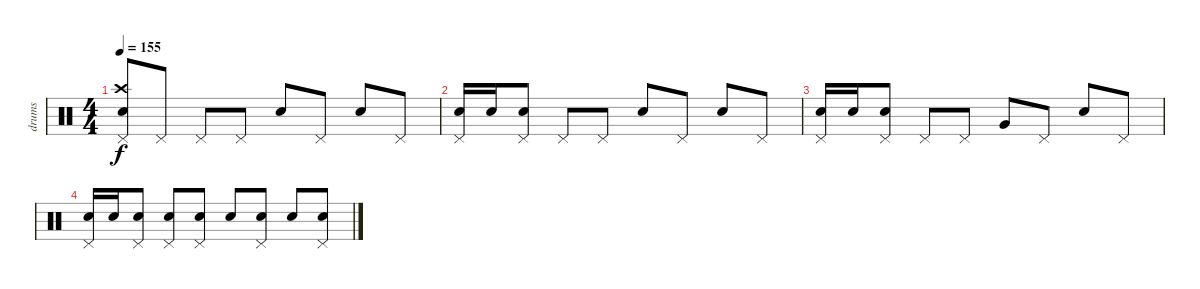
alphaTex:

\track ("drums" "drums") {instrument percussion}
\staff {score}
\articulation defaults
\ts (4 4)
\tempo 155
\clef neutral
\ks c
("Electric Snare (hit)" "Crash high (hit)" "Pedal Hi-Hat (hit)").8{dy f} "Pedal Hi-Hat (hit)".8 "Pedal Hi-Hat (hit)".8 "Pedal Hi-Hat (hit)".8 "Electric Snare (hit)".8 "Pedal Hi-Hat (hit)".8 "Electric Snare (hit)".8 "Pedal Hi-Hat (hit)".8 |
("Electric Snare (hit)" "Pedal Hi-Hat (hit)").16 "Electric Snare (hit)".16 ("Electric Snare (hit)" "Pedal Hi-Hat (hit)").8 "Pedal Hi-Hat (hit)".8 "Pedal Hi-Hat (hit)".8 "Electric Snare (hit)".8 "Pedal Hi-Hat (hit)".8 "Electric Snare (hit)".8 "Pedal Hi-Hat (hit)".8 |
("Electric Snare (hit)" "Pedal Hi-Hat (hit)").16 "Electric Snare (hit)".16 ("Electric Snare (hit)" "Pedal Hi-Hat (hit)").8 "Pedal Hi-Hat (hit)".8 "Pedal Hi-Hat (hit)".8 "Very Low Tom (hit)".8 "Pedal Hi-Hat (hit)".8 "Electric Snare (hit)".8 "Pedal Hi-Hat (hit)".8 |
("Electric Snare (hit)" "Pedal Hi-Hat (hit)").16 "Electric Snare (hit)".16 ("Electric Snare (hit)" "Pedal Hi-Hat (hit)").8 ("Electric Snare (hit)" "Pedal Hi-Hat (hit)").8 ("Electric Snare (hit)" "Pedal Hi-Hat (hit)").8 "Electric Snare (hit)".8 ("Electric Snare (hit)" "Pedal Hi-Hat (hit)").8 "Electric Snare (hit)".8 ("Electric Snare (hit)" "Pedal Hi-Hat (hit)").8
